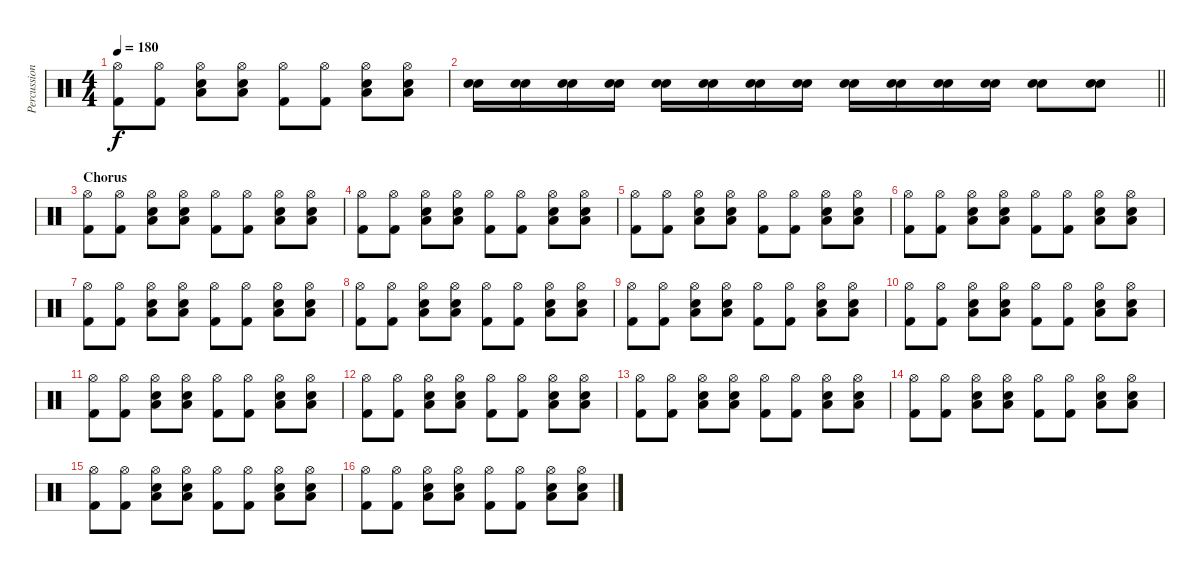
\track ("Percussioni" "Percussion") {instrument percussion}
\staff {score}
\articulation defaults
\ts (4 4)
\tempo 180
\clef neutral
\ks c
("Hi-Hat (open)" "Kick (hit) 2").8{dy f} ("Hi-Hat (open)" "Kick (hit) 2").8 ("Hi-Hat (open)" "Electric Snare (hit)" "Low Floor Tom (hit)").8 ("Hi-Hat (open)" "Electric Snare (hit)" "Low Floor Tom (hit)").8 ("Hi-Hat (open)" "Kick (hit) 2").8 ("Hi-Hat (open)" "Kick (hit) 2").8 ("Hi-Hat (open)" "Electric Snare (hit)" "Low Floor Tom (hit)").8 ("Hi-Hat (open)" "Electric Snare (hit)" "Low Floor Tom (hit)").8 |
\barLineRight lightlight
("Electric Snare (hit)" "Electric Snare (hit)").16 ("Electric Snare (hit)" "Electric Snare (hit)").16 ("Electric Snare (hit)" "Electric Snare (hit)").16 ("Electric Snare (hit)" "Electric Snare (hit)").16 ("Electric Snare (hit)" "Electric Snare (hit)").16 ("Electric Snare (hit)" "Electric Snare (hit)").16 ("Electric Snare (hit)" "Electric Snare (hit)").16 ("Electric Snare (hit)" "Electric Snare (hit)").16 ("Electric Snare (hit)" "Electric Snare (hit)").16 ("Electric Snare (hit)" "Electric Snare (hit)").16 ("Electric Snare (hit)" "Electric Snare (hit)").16 ("Electric Snare (hit)" "Electric Snare (hit)").16 ("Electric Snare (hit)" "Electric Snare (hit)").8 ("Electric Snare (hit)" "Electric Snare (hit)").8 |
\section ("" "Chorus")
("Hi-Hat (open)" "Kick (hit) 2").8 ("Hi-Hat (open)" "Kick (hit) 2").8 ("Hi-Hat (open)" "Electric Snare (hit)" "Low Floor Tom (hit)").8 ("Hi-Hat (open)" "Electric Snare (hit)" "Low Floor Tom (hit)").8 ("Hi-Hat (open)" "Kick (hit) 2").8 ("Hi-Hat (open)" "Kick (hit) 2").8 ("Hi-Hat (open)" "Electric Snare (hit)" "Low Floor Tom (hit)").8 ("Hi-Hat (open)" "Electric Snare (hit)" "Low Floor Tom (hit)").8 |
("Hi-Hat (open)" "Kick (hit) 2").8 ("Hi-Hat (open)" "Kick (hit) 2").8 ("Hi-Hat (open)" "Electric Snare (hit)" "Low Floor Tom (hit)").8 ("Hi-Hat (open)" "Electric Snare (hit)" "Low Floor Tom (hit)").8 ("Hi-Hat (open)" "Kick (hit) 2").8 ("Hi-Hat (open)" "Kick (hit) 2").8 ("Hi-Hat (open)" "Electric Snare (hit)" "Low Floor Tom (hit)").8 ("Hi-Hat (open)" "Electric Snare (hit)" "Low Floor Tom (hit)").8 |
("Hi-Hat (open)" "Kick (hit) 2").8 ("Hi-Hat (open)" "Kick (hit) 2").8 ("Hi-Hat (open)" "Electric Snare (hit)" "Low Floor Tom (hit)").8 ("Hi-Hat (open)" "Electric Snare (hit)" "Low Floor Tom (hit)").8 ("Hi-Hat (open)" "Kick (hit) 2").8 ("Hi-Hat (open)" "Kick (hit) 2").8 ("Hi-Hat (open)" "Electric Snare (hit)" "Low Floor Tom (hit)").8 ("Hi-Hat (open)" "Electric Snare (hit)" "Low Floor Tom (hit)").8 |
("Hi-Hat (open)" "Kick (hit) 2").8 ("Hi-Hat (open)" "Kick (hit) 2").8 ("Hi-Hat (open)" "Electric Snare (hit)" "Low Floor Tom (hit)").8 ("Hi-Hat (open)" "Electric Snare (hit)" "Low Floor Tom (hit)").8 ("Hi-Hat (open)" "Kick (hit) 2").8 ("Hi-Hat (open)" "Kick (hit) 2").8 ("Hi-Hat (open)" "Electric Snare (hit)" "Low Floor Tom (hit)").8 ("Hi-Hat (open)" "Electric Snare (hit)" "Low Floor Tom (hit)").8 |
("Hi-Hat (open)" "Kick (hit) 2").8 ("Hi-Hat (open)" "Kick (hit) 2").8 ("Hi-Hat (open)" "Electric Snare (hit)" "Low Floor Tom (hit)").8 ("Hi-Hat (open)" "Electric Snare (hit)" "Low Floor Tom (hit)").8 ("Hi-Hat (open)" "Kick (hit) 2").8 ("Hi-Hat (open)" "Kick (hit) 2").8 ("Hi-Hat (open)" "Electric Snare (hit)" "Low Floor Tom (hit)").8 ("Hi-Hat (open)" "Electric Snare (hit)" "Low Floor Tom (hit)").8 |
("Hi-Hat (open)" "Kick (hit) 2").8 ("Hi-Hat (open)" "Kick (hit) 2").8 ("Hi-Hat (open)" "Electric Snare (hit)" "Low Floor Tom (hit)").8 ("Hi-Hat (open)" "Electric Snare (hit)" "Low Floor Tom (hit)").8 ("Hi-Hat (open)" "Kick (hit) 2").8 ("Hi-Hat (open)" "Kick (hit) 2").8 ("Hi-Hat (open)" "Electric Snare (hit)" "Low Floor Tom (hit)").8 ("Hi-Hat (open)" "Electric Snare (hit)" "Low Floor Tom (hit)").8 |
("Hi-Hat (open)" "Kick (hit) 2").8 ("Hi-Hat (open)" "Kick (hit) 2").8 ("Hi-Hat (open)" "Electric Snare (hit)" "Low Floor Tom (hit)").8 ("Hi-Hat (open)" "Electric Snare (hit)" "Low Floor Tom (hit)").8 ("Hi-Hat (open)" "Kick (hit) 2").8 ("Hi-Hat (open)" "Kick (hit) 2").8 ("Hi-Hat (open)" "Electric Snare (hit)" "Low Floor Tom (hit)").8 ("Hi-Hat (open)" "Electric Snare (hit)" "Low Floor Tom (hit)").8 |
("Hi-Hat (open)" "Kick (hit) 2").8 ("Hi-Hat (open)" "Kick (hit) 2").8 ("Hi-Hat (open)" "Electric Snare (hit)" "Low Floor Tom (hit)").8 ("Hi-Hat (open)" "Electric Snare (hit)" "Low Floor Tom (hit)").8 ("Hi-Hat (open)" "Kick (hit) 2").8 ("Hi-Hat (open)" "Kick (hit) 2").8 ("Hi-Hat (open)" "Electric Snare (hit)" "Low Floor Tom (hit)").8 ("Hi-Hat (open)" "Electric Snare (hit)" "Low Floor Tom (hit)").8 |
("Hi-Hat (open)" "Kick (hit) 2").8 ("Hi-Hat (open)" "Kick (hit) 2").8 ("Hi-Hat (open)" "Electric Snare (hit)" "Low Floor Tom (hit)").8 ("Hi-Hat (open)" "Electric Snare (hit)" "Low Floor Tom (hit)").8 ("Hi-Hat (open)" "Kick (hit) 2").8 ("Hi-Hat (open)" "Kick (hit) 2").8 ("Hi-Hat (open)" "Electric Snare (hit)" "Low Floor Tom (hit)").8 ("Hi-Hat (open)" "Electric Snare (hit)" "Low Floor Tom (hit)").8 |
("Hi-Hat (open)" "Kick (hit) 2").8 ("Hi-Hat (open)" "Kick (hit) 2").8 ("Hi-Hat (open)" "Electric Snare (hit)" "Low Floor Tom (hit)").8 ("Hi-Hat (open)" "Electric Snare (hit)" "Low Floor Tom (hit)").8 ("Hi-Hat (open)" "Kick (hit) 2").8 ("Hi-Hat (open)" "Kick (hit) 2").8 ("Hi-Hat (open)" "Electric Snare (hit)" "Low Floor Tom (hit)").8 ("Hi-Hat (open)" "Electric Snare (hit)" "Low Floor Tom (hit)").8 |
("Hi-Hat (open)" "Kick (hit) 2").8 ("Hi-Hat (open)" "Kick (hit) 2").8 ("Hi-Hat (open)" "Electric Snare (hit)" "Low Floor Tom (hit)").8 ("Hi-Hat (open)" "Electric Snare (hit)" "Low Floor Tom (hit)").8 ("Hi-Hat (open)" "Kick (hit) 2").8 ("Hi-Hat (open)" "Kick (hit) 2").8 ("Hi-Hat (open)" "Electric Snare (hit)" "Low Floor Tom (hit)").8 ("Hi-Hat (open)" "Electric Snare (hit)" "Low Floor Tom (hit)").8 |
("Hi-Hat (open)" "Kick (hit) 2").8 ("Hi-Hat (open)" "Kick (hit) 2").8 ("Hi-Hat (open)" "Electric Snare (hit)" "Low Floor Tom (hit)").8 ("Hi-Hat (open)" "Electric Snare (hit)" "Low Floor Tom (hit)").8 ("Hi-Hat (open)" "Kick (hit) 2").8 ("Hi-Hat (open)" "Kick (hit) 2").8 ("Hi-Hat (open)" "Electric Snare (hit)" "Low Floor Tom (hit)").8 ("Hi-Hat (open)" "Electric Snare (hit)" "Low Floor Tom (hit)").8 |
("Hi-Hat (open)" "Kick (hit) 2").8 ("Hi-Hat (open)" "Kick (hit) 2").8 ("Hi-Hat (open)" "Electric Snare (hit)" "Low Floor Tom (hit)").8 ("Hi-Hat (open)" "Electric Snare (hit)" "Low Floor Tom (hit)").8 ("Hi-Hat (open)" "Kick (hit) 2").8 ("Hi-Hat (open)" "Kick (hit) 2").8 ("Hi-Hat (open)" "Electric Snare (hit)" "Low Floor Tom (hit)").8 ("Hi-Hat (open)" "Electric Snare (hit)" "Low Floor Tom (hit)").8 |
("Hi-Hat (open)" "Kick (hit) 2").8 ("Hi-Hat (open)" "Kick (hit) 2").8 ("Hi-Hat (open)" "Electric Snare (hit)" "Low Floor Tom (hit)").8 ("Hi-Hat (open)" "Electric Snare (hit)" "Low Floor Tom (hit)").8 ("Hi-Hat (open)" "Kick (hit) 2").8 ("Hi-Hat (open)" "Kick (hit) 2").8 ("Hi-Hat (open)" "Electric Snare (hit)" "Low Floor Tom (hit)").8 ("Hi-Hat (open)" "Electric Snare (hit)" "Low Floor Tom (hit)").8
